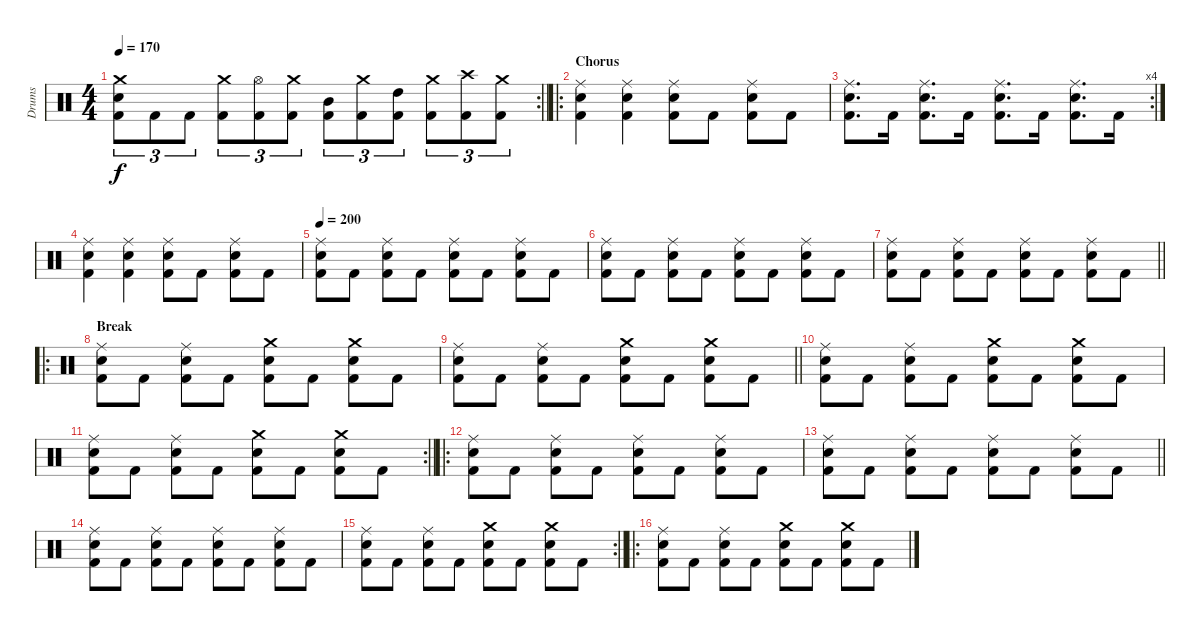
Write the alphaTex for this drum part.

\track ("Drums" "Drums") {instrument percussion}
\staff {score}
\articulation defaults
\rc 2
\ts (4 4)
\tempo 170
\clef neutral
\barLineRight lightlight
\ks c
("Crash medium (hit)" "Snare (hit) 2" "Kick (hit) 2").8{tu (3 2) dy f} "Kick (hit) 2".8{tu (3 2)} "Kick (hit) 2".8{tu (3 2)} ("Crash medium (hit)" "Kick (hit) 2").8{tu (3 2)} ("Hi-Hat (open)" "Kick (hit) 2").8{tu (3 2)} ("Crash medium (hit)" "Kick (hit) 2").8{tu (3 2)} ("Mid Tom (hit)" "Kick (hit) 2").8{tu (3 2)} ("Crash medium (hit)" "Kick (hit) 2").8{tu (3 2)} ("High Tom (hit)" "Kick (hit) 2").8{tu (3 2)} ("Crash medium (hit)" "Kick (hit) 2").8{tu (3 2)} ("Crash high (hit)" "Kick (hit) 2").8{tu (3 2)} ("Crash medium (hit)" "Kick (hit) 2").8{tu (3 2)} |
\ro
\section ("" "Chorus")
("Ride (middle)" "Snare (hit) 2" "Kick (hit) 2").4 ("Ride (middle)" "Snare (hit) 2" "Kick (hit) 2").4 ("Ride (middle)" "Snare (hit) 2" "Kick (hit) 2").8 "Kick (hit) 2".8 ("Ride (middle)" "Snare (hit) 2" "Kick (hit) 2").8 "Kick (hit) 2".8 |
\rc 4
("Ride (middle)" "Snare (hit) 2" "Kick (hit) 2").8{d} "Kick (hit) 2".16 ("Ride (middle)" "Snare (hit) 2" "Kick (hit) 2").8{d} "Kick (hit) 2".16 ("Ride (middle)" "Snare (hit) 2" "Kick (hit) 2").8{d} "Kick (hit) 2".16 ("Ride (middle)" "Snare (hit) 2" "Kick (hit) 2").8{d} "Kick (hit) 2".16 |
("Ride (middle)" "Snare (hit) 2" "Kick (hit) 2").4 ("Ride (middle)" "Snare (hit) 2" "Kick (hit) 2").4 ("Ride (middle)" "Snare (hit) 2" "Kick (hit) 2").8 "Kick (hit) 2".8 ("Ride (middle)" "Snare (hit) 2" "Kick (hit) 2").8 "Kick (hit) 2".8 |
\tempo 200
("Ride (middle)" "Snare (hit) 2" "Kick (hit) 2").8 "Kick (hit) 2".8 ("Ride (middle)" "Snare (hit) 2" "Kick (hit) 2").8 "Kick (hit) 2".8 ("Ride (middle)" "Snare (hit) 2" "Kick (hit) 2").8 "Kick (hit) 2".8 ("Ride (middle)" "Snare (hit) 2" "Kick (hit) 2").8 "Kick (hit) 2".8 |
("Ride (middle)" "Snare (hit) 2" "Kick (hit) 2").8 "Kick (hit) 2".8 ("Ride (middle)" "Snare (hit) 2" "Kick (hit) 2").8 "Kick (hit) 2".8 ("Ride (middle)" "Snare (hit) 2" "Kick (hit) 2").8 "Kick (hit) 2".8 ("Ride (middle)" "Snare (hit) 2" "Kick (hit) 2").8 "Kick (hit) 2".8 |
\barLineRight lightlight
("Ride (middle)" "Snare (hit) 2" "Kick (hit) 2").8 "Kick (hit) 2".8 ("Ride (middle)" "Snare (hit) 2" "Kick (hit) 2").8 "Kick (hit) 2".8 ("Ride (middle)" "Snare (hit) 2" "Kick (hit) 2").8 "Kick (hit) 2".8 ("Ride (middle)" "Snare (hit) 2" "Kick (hit) 2").8 "Kick (hit) 2".8 |
\ro
\section ("" "Break")
("Ride (middle)" "Snare (hit) 2" "Kick (hit) 2").8 "Kick (hit) 2".8 ("Ride (middle)" "Snare (hit) 2" "Kick (hit) 2").8 "Kick (hit) 2".8 ("Crash medium (hit)" "Snare (hit) 2" "Kick (hit) 2").8 "Kick (hit) 2".8 ("Crash medium (hit)" "Snare (hit) 2" "Kick (hit) 2").8 "Kick (hit) 2".8 |
\barLineRight lightlight
("Ride (middle)" "Snare (hit) 2" "Kick (hit) 2").8 "Kick (hit) 2".8 ("Ride (middle)" "Snare (hit) 2" "Kick (hit) 2").8 "Kick (hit) 2".8 ("Crash medium (hit)" "Snare (hit) 2" "Kick (hit) 2").8 "Kick (hit) 2".8 ("Crash medium (hit)" "Snare (hit) 2" "Kick (hit) 2").8 "Kick (hit) 2".8 |
("Ride (middle)" "Snare (hit) 2" "Kick (hit) 2").8 "Kick (hit) 2".8 ("Ride (middle)" "Snare (hit) 2" "Kick (hit) 2").8 "Kick (hit) 2".8 ("Crash medium (hit)" "Snare (hit) 2" "Kick (hit) 2").8 "Kick (hit) 2".8 ("Crash medium (hit)" "Snare (hit) 2" "Kick (hit) 2").8 "Kick (hit) 2".8 |
\rc 2
\barLineRight lightlight
("Ride (middle)" "Snare (hit) 2" "Kick (hit) 2").8 "Kick (hit) 2".8 ("Ride (middle)" "Snare (hit) 2" "Kick (hit) 2").8 "Kick (hit) 2".8 ("Crash medium (hit)" "Snare (hit) 2" "Kick (hit) 2").8 "Kick (hit) 2".8 ("Crash medium (hit)" "Snare (hit) 2" "Kick (hit) 2").8 "Kick (hit) 2".8 |
\ro
("Ride (middle)" "Snare (hit) 2" "Kick (hit) 2").8 "Kick (hit) 2".8 ("Ride (middle)" "Snare (hit) 2" "Kick (hit) 2").8 "Kick (hit) 2".8 ("Ride (middle)" "Snare (hit) 2" "Kick (hit) 2").8 "Kick (hit) 2".8 ("Ride (middle)" "Snare (hit) 2" "Kick (hit) 2").8 "Kick (hit) 2".8 |
\barLineRight lightlight
("Ride (middle)" "Snare (hit) 2" "Kick (hit) 2").8 "Kick (hit) 2".8 ("Ride (middle)" "Snare (hit) 2" "Kick (hit) 2").8 "Kick (hit) 2".8 ("Ride (middle)" "Snare (hit) 2" "Kick (hit) 2").8 "Kick (hit) 2".8 ("Ride (middle)" "Snare (hit) 2" "Kick (hit) 2").8 "Kick (hit) 2".8 |
("Ride (middle)" "Snare (hit) 2" "Kick (hit) 2").8 "Kick (hit) 2".8 ("Ride (middle)" "Snare (hit) 2" "Kick (hit) 2").8 "Kick (hit) 2".8 ("Ride (middle)" "Snare (hit) 2" "Kick (hit) 2").8 "Kick (hit) 2".8 ("Ride (middle)" "Snare (hit) 2" "Kick (hit) 2").8 "Kick (hit) 2".8 |
\rc 2
\barLineRight lightlight
("Ride (middle)" "Snare (hit) 2" "Kick (hit) 2").8 "Kick (hit) 2".8 ("Ride (middle)" "Snare (hit) 2" "Kick (hit) 2").8 "Kick (hit) 2".8 ("Crash medium (hit)" "Snare (hit) 2" "Kick (hit) 2").8 "Kick (hit) 2".8 ("Crash medium (hit)" "Snare (hit) 2" "Kick (hit) 2").8 "Kick (hit) 2".8 |
\ro
("Ride (middle)" "Snare (hit) 2" "Kick (hit) 2").8 "Kick (hit) 2".8 ("Ride (middle)" "Snare (hit) 2" "Kick (hit) 2").8 "Kick (hit) 2".8 ("Crash medium (hit)" "Snare (hit) 2" "Kick (hit) 2").8 "Kick (hit) 2".8 ("Crash medium (hit)" "Snare (hit) 2" "Kick (hit) 2").8 "Kick (hit) 2".8
